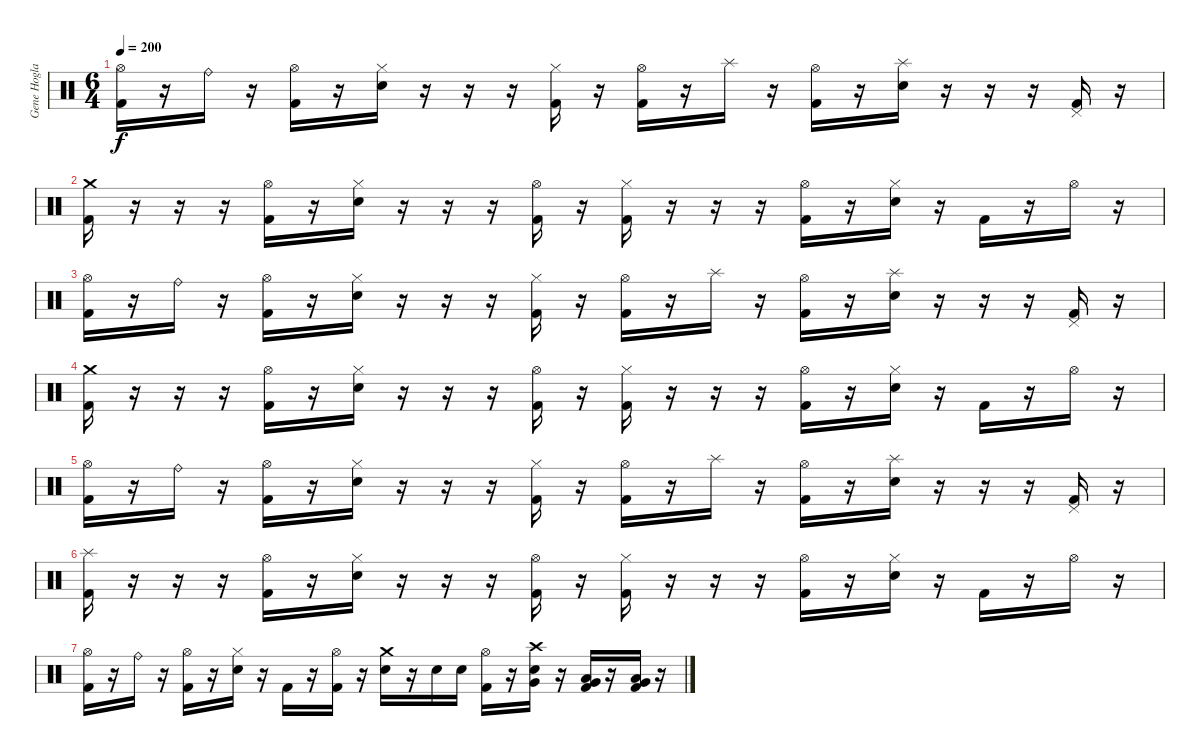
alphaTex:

\track ("Gene Hoglan" "Gene Hogla") {instrument percussion}
\staff {score}
\articulation defaults
\ts (6 4)
\tempo 200
\clef neutral
\ks c
("Hi-Hat (open)" "Kick (hit) 2").16{dy f} r.16 "Ride (bell)".16 r.16 ("Hi-Hat (open)" "Kick (hit) 2").16 r.16 ("Hi-Hat (closed)" "Electric Snare (hit)").16 r.16 r.16 r.16 ("Hi-Hat (closed)" "Kick (hit) 2").16 r.16 ("Hi-Hat (open)" "Kick (hit) 2").16 r.16 "Splash (hit)".16 r.16 ("Hi-Hat (open)" "Kick (hit) 2").16 r.16 ("Splash (hit)" "Electric Snare (hit)").16 r.16 r.16 r.16 ("Pedal Hi-Hat (hit)" "Kick (hit) 2").16 r.16 |
("Crash medium (hit)" "Kick (hit) 2").16 r.16 r.16 r.16 ("Hi-Hat (open)" "Kick (hit) 2").16 r.16 ("Hi-Hat (closed)" "Electric Snare (hit)").16 r.16 r.16 r.16 ("Hi-Hat (open)" "Kick (hit) 2").16 r.16 ("Hi-Hat (closed)" "Kick (hit) 2").16 r.16 r.16 r.16 ("Hi-Hat (open)" "Kick (hit) 2").16 r.16 ("Hi-Hat (closed)" "Electric Snare (hit)").16 r.16 "Kick (hit) 2".16 r.16 "Hi-Hat (open)".16 r.16 |
("Hi-Hat (open)" "Kick (hit) 2").16 r.16 "Ride (bell)".16 r.16 ("Hi-Hat (open)" "Kick (hit) 2").16 r.16 ("Hi-Hat (closed)" "Electric Snare (hit)").16 r.16 r.16 r.16 ("Hi-Hat (closed)" "Kick (hit) 2").16 r.16 ("Hi-Hat (open)" "Kick (hit) 2").16 r.16 "Splash (hit)".16 r.16 ("Hi-Hat (open)" "Kick (hit) 2").16 r.16 ("Splash (hit)" "Electric Snare (hit)").16 r.16 r.16 r.16 ("Pedal Hi-Hat (hit)" "Kick (hit) 2").16 r.16 |
("Crash medium (hit)" "Kick (hit) 2").16 r.16 r.16 r.16 ("Hi-Hat (open)" "Kick (hit) 2").16 r.16 ("Hi-Hat (closed)" "Electric Snare (hit)").16 r.16 r.16 r.16 ("Hi-Hat (open)" "Kick (hit) 2").16 r.16 ("Hi-Hat (closed)" "Kick (hit) 2").16 r.16 r.16 r.16 ("Hi-Hat (open)" "Kick (hit) 2").16 r.16 ("Hi-Hat (closed)" "Electric Snare (hit)").16 r.16 "Kick (hit) 2".16 r.16 "Hi-Hat (open)".16 r.16 |
("Hi-Hat (open)" "Kick (hit) 2").16 r.16 "Ride (bell)".16 r.16 ("Hi-Hat (open)" "Kick (hit) 2").16 r.16 ("Hi-Hat (closed)" "Electric Snare (hit)").16 r.16 r.16 r.16 ("Hi-Hat (closed)" "Kick (hit) 2").16 r.16 ("Hi-Hat (open)" "Kick (hit) 2").16 r.16 "Splash (hit)".16 r.16 ("Hi-Hat (open)" "Kick (hit) 2").16 r.16 ("Splash (hit)" "Electric Snare (hit)").16 r.16 r.16 r.16 ("Pedal Hi-Hat (hit)" "Kick (hit) 2").16 r.16 |
("Splash (hit)" "Kick (hit) 2").16 r.16 r.16 r.16 ("Hi-Hat (open)" "Kick (hit) 2").16 r.16 ("Hi-Hat (closed)" "Electric Snare (hit)").16 r.16 r.16 r.16 ("Hi-Hat (open)" "Kick (hit) 2").16 r.16 ("Hi-Hat (closed)" "Kick (hit) 2").16 r.16 r.16 r.16 ("Hi-Hat (open)" "Kick (hit) 2").16 r.16 ("Hi-Hat (closed)" "Electric Snare (hit)").16 r.16 "Kick (hit) 2".16 r.16 "Hi-Hat (open)".16 r.16 |
("Hi-Hat (open)" "Kick (hit) 2").16 r.16 "Ride (bell)".16 r.16 ("Hi-Hat (open)" "Kick (hit) 2").16 r.16 ("Hi-Hat (closed)" "Electric Snare (hit)").16 r.16 "Kick (hit) 2".16 r.16 ("Hi-Hat (open)" "Kick (hit) 2").16 r.16 ("Crash medium (hit)" "Electric Snare (hit)").16 r.16 "Electric Snare (hit)".16 "Electric Snare (hit)".16 ("Hi-Hat (open)" "Kick (hit) 2").16 r.16 ("Crash high (hit)" "Electric Snare (hit)" "Very Low Tom (hit)").16 r.16 ("Low Tom (hit)" "Very Low Tom (hit)" "Kick (hit) 2").16 r.16 ("Low Tom (hit)" "Very Low Tom (hit)" "Kick (hit) 2").16 r.16
